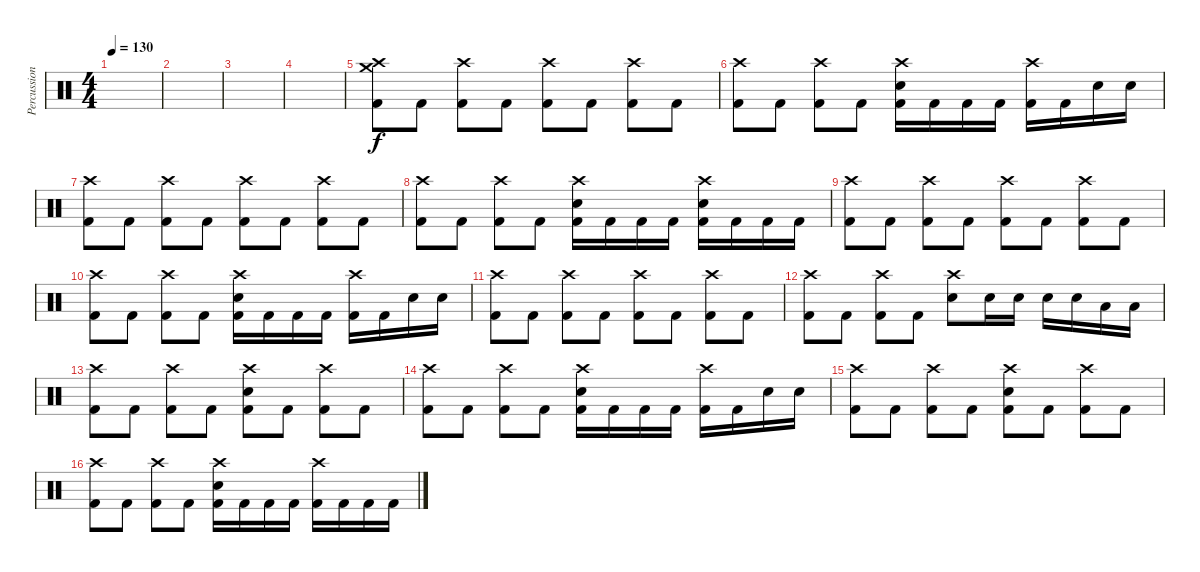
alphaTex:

\track ("Percussion" "Percussion") {instrument percussion}
\staff {score}
\articulation defaults
\ts (4 4)
\tempo 130
\clef neutral
\ks c
|
|
|
|
("Crash high (hit)" "Crash medium (hit)" "Kick (hit) 2").8 "Kick (hit) 2".8 ("Crash high (hit)" "Kick (hit) 2").8 "Kick (hit) 2".8 ("Crash high (hit)" "Kick (hit) 2").8 "Kick (hit) 2".8 ("Crash high (hit)" "Kick (hit) 2").8 "Kick (hit) 2".8 |
("Crash high (hit)" "Kick (hit) 2").8 "Kick (hit) 2".8 ("Crash high (hit)" "Kick (hit) 2").8 "Kick (hit) 2".8 ("Crash high (hit)" "Electric Snare (hit)" "Kick (hit) 2").16 "Kick (hit) 2".16 "Kick (hit) 2".16 "Kick (hit) 2".16 ("Crash high (hit)" "Kick (hit) 2").16 "Kick (hit) 2".16 "Electric Snare (hit)".16 "Electric Snare (hit)".16 |
("Crash high (hit)" "Kick (hit) 2").8 "Kick (hit) 2".8 ("Crash high (hit)" "Kick (hit) 2").8 "Kick (hit) 2".8 ("Crash high (hit)" "Kick (hit) 2").8 "Kick (hit) 2".8 ("Crash high (hit)" "Kick (hit) 2").8 "Kick (hit) 2".8 |
("Crash high (hit)" "Kick (hit) 2").8 "Kick (hit) 2".8 ("Crash high (hit)" "Kick (hit) 2").8 "Kick (hit) 2".8 ("Crash high (hit)" "Electric Snare (hit)" "Kick (hit) 2").16 "Kick (hit) 2".16 "Kick (hit) 2".16 "Kick (hit) 2".16 ("Crash high (hit)" "Electric Snare (hit)" "Kick (hit) 2").16 "Kick (hit) 2".16 "Kick (hit) 2".16 "Kick (hit) 2".16 |
("Crash high (hit)" "Kick (hit) 2").8 "Kick (hit) 2".8 ("Crash high (hit)" "Kick (hit) 2").8 "Kick (hit) 2".8 ("Crash high (hit)" "Kick (hit) 2").8 "Kick (hit) 2".8 ("Crash high (hit)" "Kick (hit) 2").8 "Kick (hit) 2".8 |
("Crash high (hit)" "Kick (hit) 2").8 "Kick (hit) 2".8 ("Crash high (hit)" "Kick (hit) 2").8 "Kick (hit) 2".8 ("Crash high (hit)" "Electric Snare (hit)" "Kick (hit) 2").16 "Kick (hit) 2".16 "Kick (hit) 2".16 "Kick (hit) 2".16 ("Crash high (hit)" "Kick (hit) 2").16 "Kick (hit) 2".16 "Electric Snare (hit)".16 "Electric Snare (hit)".16 |
("Crash high (hit)" "Kick (hit) 2").8 "Kick (hit) 2".8 ("Crash high (hit)" "Kick (hit) 2").8 "Kick (hit) 2".8 ("Crash high (hit)" "Kick (hit) 2").8 "Kick (hit) 2".8 ("Crash high (hit)" "Kick (hit) 2").8 "Kick (hit) 2".8 |
("Crash high (hit)" "Kick (hit) 2").8 "Kick (hit) 2".8 ("Crash high (hit)" "Kick (hit) 2").8 "Kick (hit) 2".8 ("Crash high (hit)" "Electric Snare (hit)").8 "Electric Snare (hit)".16 "Electric Snare (hit)".16 "Electric Snare (hit)".16 "Electric Snare (hit)".16 "Low Tom (hit)".16 "Low Tom (hit)".16 |
("Crash high (hit)" "Kick (hit) 2").8 "Kick (hit) 2".8 ("Crash high (hit)" "Kick (hit) 2").8 "Kick (hit) 2".8 ("Crash high (hit)" "Electric Snare (hit)" "Kick (hit) 2").8 "Kick (hit) 2".8 ("Crash high (hit)" "Kick (hit) 2").8 "Kick (hit) 2".8 |
("Crash high (hit)" "Kick (hit) 2").8 "Kick (hit) 2".8 ("Crash high (hit)" "Kick (hit) 2").8 "Kick (hit) 2".8 ("Crash high (hit)" "Electric Snare (hit)" "Kick (hit) 2").16 "Kick (hit) 2".16 "Kick (hit) 2".16 "Kick (hit) 2".16 ("Crash high (hit)" "Kick (hit) 2").16 "Kick (hit) 2".16 "Electric Snare (hit)".16 "Electric Snare (hit)".16 |
("Crash high (hit)" "Kick (hit) 2").8 "Kick (hit) 2".8 ("Crash high (hit)" "Kick (hit) 2").8 "Kick (hit) 2".8 ("Crash high (hit)" "Electric Snare (hit)" "Kick (hit) 2").8 "Kick (hit) 2".8 ("Crash high (hit)" "Kick (hit) 2").8 "Kick (hit) 2".8 |
("Crash high (hit)" "Kick (hit) 2").8 "Kick (hit) 2".8 ("Crash high (hit)" "Kick (hit) 2").8 "Kick (hit) 2".8 ("Crash high (hit)" "Electric Snare (hit)" "Kick (hit) 2").16 "Kick (hit) 2".16 "Kick (hit) 2".16 "Kick (hit) 2".16 ("Crash high (hit)" "Kick (hit) 2").16 "Kick (hit) 2".16 "Kick (hit) 2".16 "Kick (hit) 2".16
